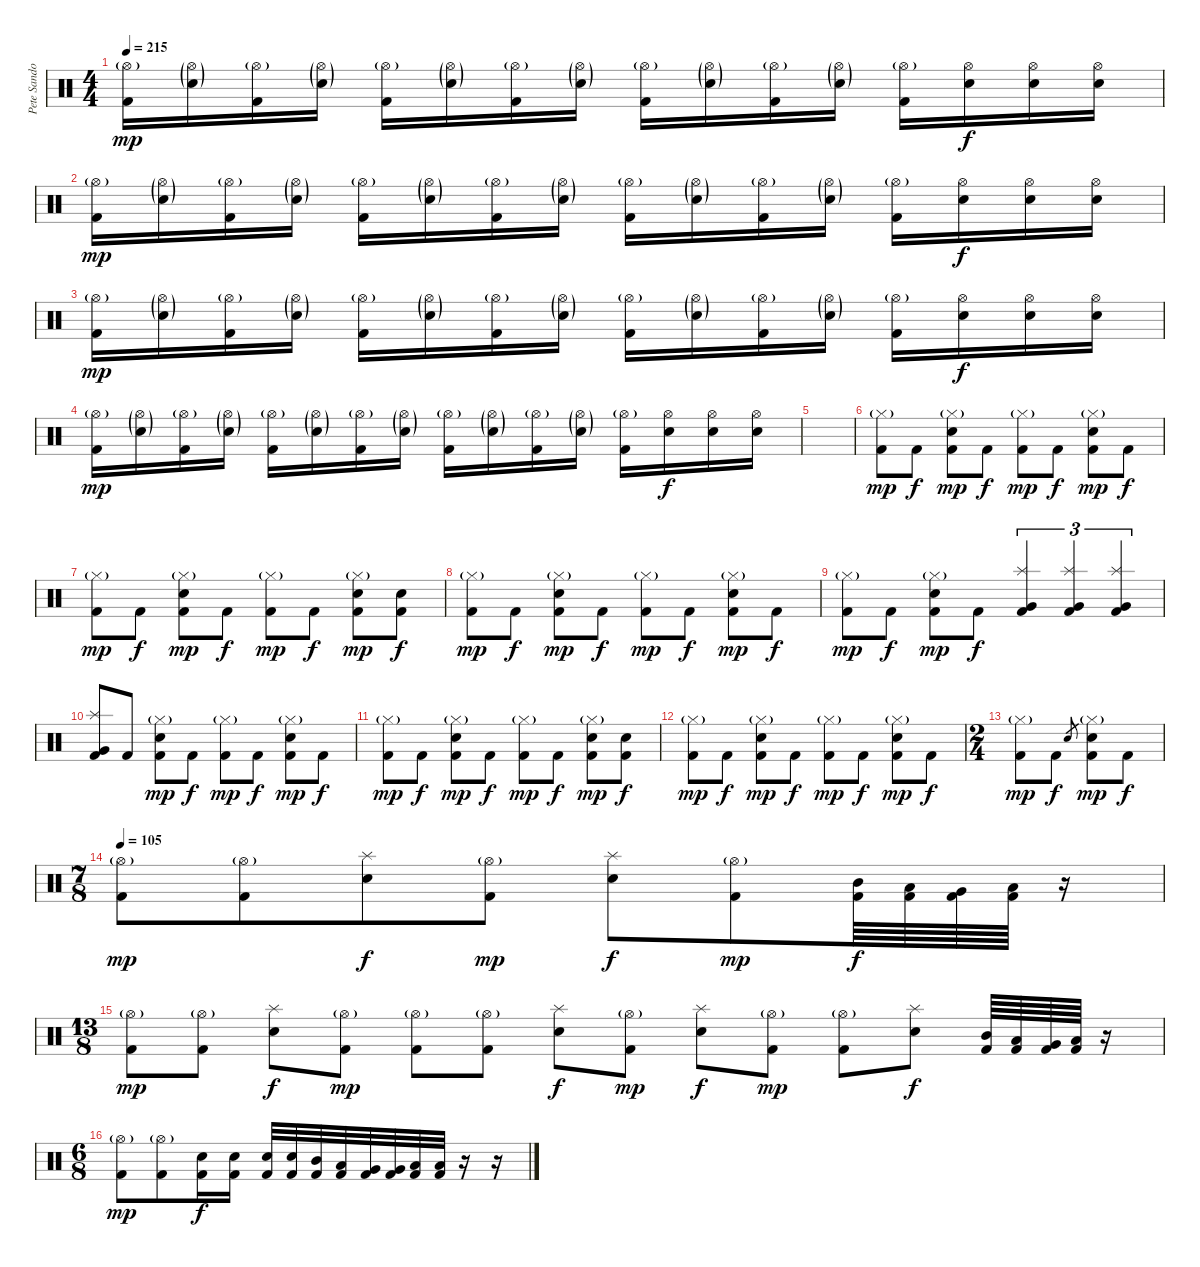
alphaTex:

\track ("Pete Sandoval" "Pete Sando") {instrument percussion}
\staff {score}
\articulation defaults
\ts (4 4)
\tempo 215
\clef neutral
\ks c
("Hi-Hat (open)"{g} "Kick (hit) 2").16{dy mp} ("Hi-Hat (open)"{g} "Snare (hit) 2"{g}).16 ("Hi-Hat (open)"{g} "Kick (hit) 2").16 ("Hi-Hat (open)"{g} "Snare (hit) 2"{g}).16 ("Hi-Hat (open)"{g} "Kick (hit) 2").16 ("Hi-Hat (open)"{g} "Snare (hit) 2"{g}).16 ("Hi-Hat (open)"{g} "Kick (hit) 2").16 ("Hi-Hat (open)"{g} "Snare (hit) 2"{g}).16 ("Hi-Hat (open)"{g} "Kick (hit) 2").16 ("Hi-Hat (open)"{g} "Snare (hit) 2"{g}).16 ("Hi-Hat (open)"{g} "Kick (hit) 2").16 ("Hi-Hat (open)"{g} "Snare (hit) 2"{g}).16 ("Hi-Hat (open)"{g} "Kick (hit) 2").16 ("Hi-Hat (open)" "Snare (hit) 2").16{dy f} ("Hi-Hat (open)" "Snare (hit) 2").16 ("Hi-Hat (open)" "Snare (hit) 2").16 |
("Hi-Hat (open)"{g} "Kick (hit) 2").16{dy mp} ("Hi-Hat (open)"{g} "Snare (hit) 2"{g}).16 ("Hi-Hat (open)"{g} "Kick (hit) 2").16 ("Hi-Hat (open)"{g} "Snare (hit) 2"{g}).16 ("Hi-Hat (open)"{g} "Kick (hit) 2").16 ("Hi-Hat (open)"{g} "Snare (hit) 2"{g}).16 ("Hi-Hat (open)"{g} "Kick (hit) 2").16 ("Hi-Hat (open)"{g} "Snare (hit) 2"{g}).16 ("Hi-Hat (open)"{g} "Kick (hit) 2").16 ("Hi-Hat (open)"{g} "Snare (hit) 2"{g}).16 ("Hi-Hat (open)"{g} "Kick (hit) 2").16 ("Hi-Hat (open)"{g} "Snare (hit) 2"{g}).16 ("Hi-Hat (open)"{g} "Kick (hit) 2").16 ("Hi-Hat (open)" "Snare (hit) 2").16{dy f} ("Hi-Hat (open)" "Snare (hit) 2").16 ("Hi-Hat (open)" "Snare (hit) 2").16 |
("Hi-Hat (open)"{g} "Kick (hit) 2").16{dy mp} ("Hi-Hat (open)"{g} "Snare (hit) 2"{g}).16 ("Hi-Hat (open)"{g} "Kick (hit) 2").16 ("Hi-Hat (open)"{g} "Snare (hit) 2"{g}).16 ("Hi-Hat (open)"{g} "Kick (hit) 2").16 ("Hi-Hat (open)"{g} "Snare (hit) 2"{g}).16 ("Hi-Hat (open)"{g} "Kick (hit) 2").16 ("Hi-Hat (open)"{g} "Snare (hit) 2"{g}).16 ("Hi-Hat (open)"{g} "Kick (hit) 2").16 ("Hi-Hat (open)"{g} "Snare (hit) 2"{g}).16 ("Hi-Hat (open)"{g} "Kick (hit) 2").16 ("Hi-Hat (open)"{g} "Snare (hit) 2"{g}).16 ("Hi-Hat (open)"{g} "Kick (hit) 2").16 ("Hi-Hat (open)" "Snare (hit) 2").16{dy f} ("Hi-Hat (open)" "Snare (hit) 2").16 ("Hi-Hat (open)" "Snare (hit) 2").16 |
("Hi-Hat (open)"{g} "Kick (hit) 2").16{dy mp} ("Hi-Hat (open)"{g} "Snare (hit) 2"{g}).16 ("Hi-Hat (open)"{g} "Kick (hit) 2").16 ("Hi-Hat (open)"{g} "Snare (hit) 2"{g}).16 ("Hi-Hat (open)"{g} "Kick (hit) 2").16 ("Hi-Hat (open)"{g} "Snare (hit) 2"{g}).16 ("Hi-Hat (open)"{g} "Kick (hit) 2").16 ("Hi-Hat (open)"{g} "Snare (hit) 2"{g}).16 ("Hi-Hat (open)"{g} "Kick (hit) 2").16 ("Hi-Hat (open)"{g} "Snare (hit) 2"{g}).16 ("Hi-Hat (open)"{g} "Kick (hit) 2").16 ("Hi-Hat (open)"{g} "Snare (hit) 2"{g}).16 ("Hi-Hat (open)"{g} "Kick (hit) 2").16 ("Hi-Hat (open)" "Snare (hit) 2").16{dy f} ("Hi-Hat (open)" "Snare (hit) 2").16 ("Hi-Hat (open)" "Snare (hit) 2").16 |
|
("Hi-Hat (closed)"{g} "Kick (hit) 2").8{dy mp} "Kick (hit) 2".8{dy f} ("Hi-Hat (closed)"{g} "Snare (hit) 2" "Kick (hit) 2").8{dy mp} "Kick (hit) 2".8{dy f} ("Hi-Hat (closed)"{g} "Kick (hit) 2").8{dy mp} "Kick (hit) 2".8{dy f} ("Hi-Hat (closed)"{g} "Snare (hit) 2" "Kick (hit) 2").8{dy mp} "Kick (hit) 2".8{dy f} |
("Hi-Hat (closed)"{g} "Kick (hit) 2").8{dy mp} "Kick (hit) 2".8{dy f} ("Hi-Hat (closed)"{g} "Snare (hit) 2" "Kick (hit) 2").8{dy mp} "Kick (hit) 2".8{dy f} ("Hi-Hat (closed)"{g} "Kick (hit) 2").8{dy mp} "Kick (hit) 2".8{dy f} ("Hi-Hat (closed)"{g} "Snare (hit) 2" "Kick (hit) 2").8{dy mp} ("Snare (hit) 2" "Kick (hit) 2").8{dy f} |
("Hi-Hat (closed)"{g} "Kick (hit) 2").8{dy mp} "Kick (hit) 2".8{dy f} ("Hi-Hat (closed)"{g} "Snare (hit) 2" "Kick (hit) 2").8{dy mp} "Kick (hit) 2".8{dy f} ("Hi-Hat (closed)"{g} "Kick (hit) 2").8{dy mp} "Kick (hit) 2".8{dy f} ("Hi-Hat (closed)"{g} "Snare (hit) 2" "Kick (hit) 2").8{dy mp} "Kick (hit) 2".8{dy f} |
("Hi-Hat (closed)"{g} "Kick (hit) 2").8{dy mp} "Kick (hit) 2".8{dy f} ("Hi-Hat (closed)"{g} "Snare (hit) 2" "Kick (hit) 2").8{dy mp} "Kick (hit) 2".8{dy f} ("Splash (hit)" "Very Low Tom (hit)" "Kick (hit) 2").4{tu (3 2)} ("Splash (hit)" "Very Low Tom (hit)" "Kick (hit) 2").4{tu (3 2)} ("Splash (hit)" "Very Low Tom (hit)" "Kick (hit) 2").4{tu (3 2)} |
("Splash (hit)" "Very Low Tom (hit)" "Kick (hit) 2").8 "Kick (hit) 2".8 ("Hi-Hat (closed)"{g} "Snare (hit) 2" "Kick (hit) 2").8{dy mp} "Kick (hit) 2".8{dy f} ("Hi-Hat (closed)"{g} "Kick (hit) 2").8{dy mp} "Kick (hit) 2".8{dy f} ("Hi-Hat (closed)"{g} "Snare (hit) 2" "Kick (hit) 2").8{dy mp} "Kick (hit) 2".8{dy f} |
("Hi-Hat (closed)"{g} "Kick (hit) 2").8{dy mp} "Kick (hit) 2".8{dy f} ("Hi-Hat (closed)"{g} "Snare (hit) 2" "Kick (hit) 2").8{dy mp} "Kick (hit) 2".8{dy f} ("Hi-Hat (closed)"{g} "Kick (hit) 2").8{dy mp} "Kick (hit) 2".8{dy f} ("Hi-Hat (closed)"{g} "Snare (hit) 2" "Kick (hit) 2").8{dy mp} ("Snare (hit) 2" "Kick (hit) 2").8{dy f} |
("Hi-Hat (closed)"{g} "Kick (hit) 2").8{dy mp} "Kick (hit) 2".8{dy f} ("Hi-Hat (closed)"{g} "Snare (hit) 2" "Kick (hit) 2").8{dy mp} "Kick (hit) 2".8{dy f} ("Hi-Hat (closed)"{g} "Kick (hit) 2").8{dy mp} "Kick (hit) 2".8{dy f} ("Hi-Hat (closed)"{g} "Snare (hit) 2" "Kick (hit) 2").8{dy mp} "Kick (hit) 2".8{dy f} |
\ts (2 4)
("Hi-Hat (closed)"{g} "Kick (hit) 2").8{dy mp} "Kick (hit) 2".8{dy f} "Snare (hit) 2".8{gr} ("Hi-Hat (closed)"{g} "Snare (hit) 2" "Kick (hit) 2").8{dy mp} "Kick (hit) 2".8{dy f} |
\ts (7 8)
\tempo 105
("Hi-Hat (open)"{g} "Kick (hit) 2").8{dy mp} ("Hi-Hat (open)"{g} "Kick (hit) 2").8 ("Splash (hit)" "Snare (hit) 2").8{dy f} ("Hi-Hat (open)"{g} "Kick (hit) 2").8{dy mp} ("Splash (hit)" "Snare (hit) 2").8{dy f} ("Hi-Hat (open)"{g} "Kick (hit) 2").8{dy mp} ("Mid Tom (hit)" "Kick (hit) 2").64{dy f} ("Low Tom (hit)" "Kick (hit) 2").64 ("Very Low Tom (hit)" "Kick (hit) 2").64 ("Low Floor Tom (hit)" "Kick (hit) 2").64 r.16 |
\ts (13 8)
("Hi-Hat (open)"{g} "Kick (hit) 2").8{dy mp} ("Hi-Hat (open)"{g} "Kick (hit) 2").8 ("Splash (hit)" "Snare (hit) 2").8{dy f} ("Hi-Hat (open)"{g} "Kick (hit) 2").8{dy mp} ("Hi-Hat (open)"{g} "Kick (hit) 2").8 ("Hi-Hat (open)"{g} "Kick (hit) 2").8 ("Splash (hit)" "Snare (hit) 2").8{dy f} ("Hi-Hat (open)"{g} "Kick (hit) 2").8{dy mp} ("Splash (hit)" "Snare (hit) 2").8{dy f} ("Hi-Hat (open)"{g} "Kick (hit) 2").8{dy mp} ("Hi-Hat (open)"{g} "Kick (hit) 2").8 ("Splash (hit)" "Snare (hit) 2").8{dy f} ("Mid Tom (hit)" "Kick (hit) 2").64 ("Low Tom (hit)" "Kick (hit) 2").64 ("Very Low Tom (hit)" "Kick (hit) 2").64 ("Low Floor Tom (hit)" "Kick (hit) 2").64 r.16 |
\ts (6 8)
("Hi-Hat (open)"{g} "Kick (hit) 2").8{dy mp} ("Hi-Hat (open)"{g} "Kick (hit) 2").8 ("Snare (hit) 2" "Kick (hit) 2").16{dy f} ("Snare (hit) 2" "Kick (hit) 2").16 ("Snare (hit) 2" "Kick (hit) 2").32 ("Snare (hit) 2" "Kick (hit) 2").32 ("Mid Tom (hit)" "Kick (hit) 2").32 ("Low Tom (hit)" "Kick (hit) 2").32 ("Very Low Tom (hit)" "Kick (hit) 2").32 ("Very Low Tom (hit)" "Kick (hit) 2").32 ("Low Floor Tom (hit)" "Kick (hit) 2").32 ("Low Floor Tom (hit)" "Kick (hit) 2").32 r.16 r.16
